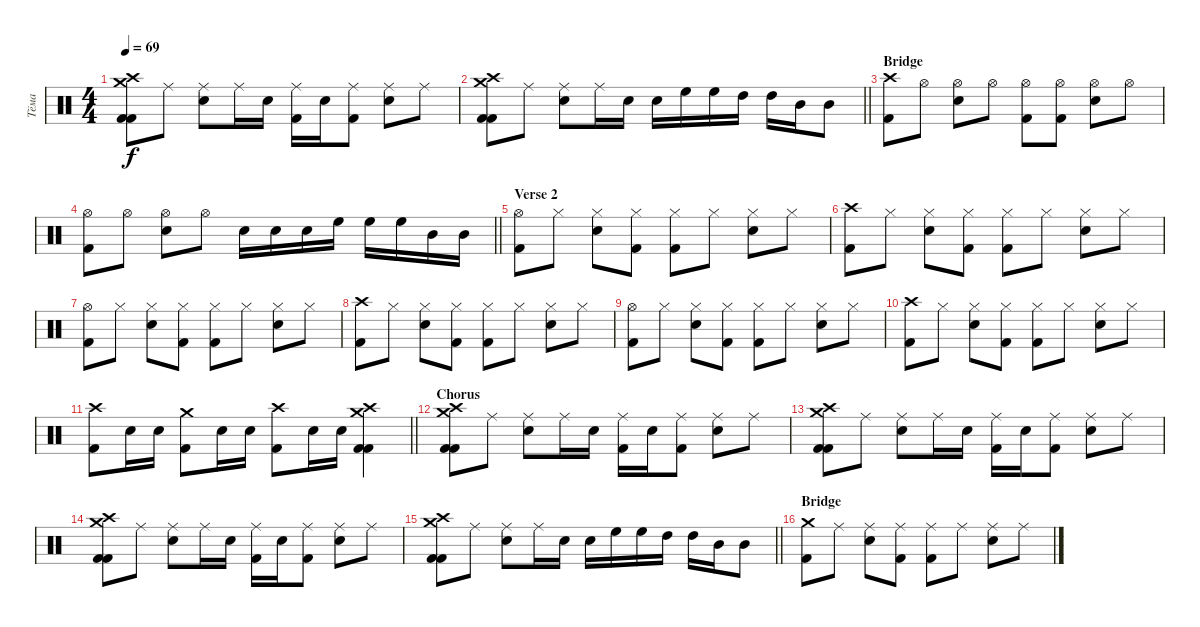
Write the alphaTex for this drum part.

\track ("Тёма" "Тёма") {instrument percussion}
\staff {score}
\articulation defaults
\ts (4 4)
\tempo 69
\clef neutral
\ks c
("Crash medium (hit)" "Crash high (hit)" "Kick (hit) 2" "Kick (hit) 2").8{dy f} "Ride (middle)".8 ("Ride (middle)" "Snare (hit) 2").8 "Ride (middle)".16 "Snare (hit) 2".16 ("Ride (middle)" "Kick (hit) 2").16 "Snare (hit) 2".16 ("Ride (middle)" "Kick (hit) 2").8 ("Ride (middle)" "Snare (hit) 2").8 "Ride (middle)".8 |
\barLineRight lightlight
("Crash medium (hit)" "Crash high (hit)" "Kick (hit) 2" "Kick (hit) 2").8 "Ride (middle)".8 ("Ride (middle)" "Snare (hit) 2").8 "Ride (middle)".16 "Snare (hit) 2".16 "Snare (hit) 2".16 "High Floor Tom (hit)".16 "High Floor Tom (hit)".16 "High Tom (hit)".16 "High Tom (hit)".16 "Mid Tom (hit)".16 "Mid Tom (hit)".8 |
\section ("" "Bridge")
("Crash high (hit)" "Kick (hit) 2").8 "Hi-Hat (open)".8 ("Hi-Hat (open)" "Snare (hit) 2").8 "Hi-Hat (open)".8 ("Hi-Hat (open)" "Kick (hit) 2").8 ("Hi-Hat (open)" "Kick (hit) 2").8 ("Hi-Hat (open)" "Snare (hit) 2").8 "Hi-Hat (open)".8 |
\barLineRight lightlight
("Hi-Hat (open)" "Kick (hit) 2").8 "Hi-Hat (open)".8 ("Hi-Hat (open)" "Snare (hit) 2").8 "Hi-Hat (open)".8 "Snare (hit) 2".16 "Snare (hit) 2".16 "Snare (hit) 2".16 "High Floor Tom (hit)".16 "High Floor Tom (hit)".16 "High Floor Tom (hit)".16 "Mid Tom (hit)".16 "Mid Tom (hit)".16 |
\section ("" "Verse 2")
("Hi-Hat (open)" "Kick (hit) 2").8 "Hi-Hat (closed)".8 ("Hi-Hat (closed)" "Snare (hit) 2").8 ("Hi-Hat (closed)" "Kick (hit) 2").8 ("Hi-Hat (closed)" "Kick (hit) 2").8 "Hi-Hat (closed)".8 ("Hi-Hat (closed)" "Snare (hit) 2").8 "Hi-Hat (closed)".8 |
("Crash high (hit)" "Kick (hit) 2").8 "Hi-Hat (closed)".8 ("Hi-Hat (closed)" "Snare (hit) 2").8 ("Hi-Hat (closed)" "Kick (hit) 2").8 ("Hi-Hat (closed)" "Kick (hit) 2").8 "Hi-Hat (closed)".8 ("Hi-Hat (closed)" "Snare (hit) 2").8 "Hi-Hat (closed)".8 |
("Hi-Hat (open)" "Kick (hit) 2").8 "Hi-Hat (closed)".8 ("Hi-Hat (closed)" "Snare (hit) 2").8 ("Hi-Hat (closed)" "Kick (hit) 2").8 ("Hi-Hat (closed)" "Kick (hit) 2").8 "Hi-Hat (closed)".8 ("Hi-Hat (closed)" "Snare (hit) 2").8 "Hi-Hat (closed)".8 |
("Crash high (hit)" "Kick (hit) 2").8 "Hi-Hat (closed)".8 ("Hi-Hat (closed)" "Snare (hit) 2").8 ("Hi-Hat (closed)" "Kick (hit) 2").8 ("Hi-Hat (closed)" "Kick (hit) 2").8 "Hi-Hat (closed)".8 ("Hi-Hat (closed)" "Snare (hit) 2").8 "Hi-Hat (closed)".8 |
("Hi-Hat (open)" "Kick (hit) 2").8 "Hi-Hat (closed)".8 ("Hi-Hat (closed)" "Snare (hit) 2").8 ("Hi-Hat (closed)" "Kick (hit) 2").8 ("Hi-Hat (closed)" "Kick (hit) 2").8 "Hi-Hat (closed)".8 ("Hi-Hat (closed)" "Snare (hit) 2").8 "Hi-Hat (closed)".8 |
("Crash high (hit)" "Kick (hit) 2").8 "Hi-Hat (closed)".8 ("Hi-Hat (closed)" "Snare (hit) 2").8 ("Hi-Hat (closed)" "Kick (hit) 2").8 ("Hi-Hat (closed)" "Kick (hit) 2").8 "Hi-Hat (closed)".8 ("Hi-Hat (closed)" "Snare (hit) 2").8 "Hi-Hat (closed)".8 |
\barLineRight lightlight
("Crash high (hit)" "Kick (hit) 2").8 "Snare (hit) 2".16 "Snare (hit) 2".16 ("Crash medium (hit)" "Kick (hit) 2").8 "Snare (hit) 2".16 "Snare (hit) 2".16 ("Crash high (hit)" "Kick (hit) 2").8 "Snare (hit) 2".16 "Snare (hit) 2".16 ("Crash medium (hit)" "Crash high (hit)" "Kick (hit) 2" "Kick (hit) 2").4 |
\section ("" "Chorus")
("Crash medium (hit)" "Crash high (hit)" "Kick (hit) 2" "Kick (hit) 2").8 "Ride (middle)".8 ("Ride (middle)" "Snare (hit) 2").8 "Ride (middle)".16 "Snare (hit) 2".16 ("Ride (middle)" "Kick (hit) 2").16 "Snare (hit) 2".16 ("Ride (middle)" "Kick (hit) 2").8 ("Ride (middle)" "Snare (hit) 2").8 "Ride (middle)".8 |
("Crash medium (hit)" "Crash high (hit)" "Kick (hit) 2" "Kick (hit) 2").8 "Ride (middle)".8 ("Ride (middle)" "Snare (hit) 2").8 "Ride (middle)".16 "Snare (hit) 2".16 ("Ride (middle)" "Kick (hit) 2").16 "Snare (hit) 2".16 ("Ride (middle)" "Kick (hit) 2").8 ("Ride (middle)" "Snare (hit) 2").8 "Ride (middle)".8 |
("Crash medium (hit)" "Crash high (hit)" "Kick (hit) 2" "Kick (hit) 2").8 "Ride (middle)".8 ("Ride (middle)" "Snare (hit) 2").8 "Ride (middle)".16 "Snare (hit) 2".16 ("Ride (middle)" "Kick (hit) 2").16 "Snare (hit) 2".16 ("Ride (middle)" "Kick (hit) 2").8 ("Ride (middle)" "Snare (hit) 2").8 "Ride (middle)".8 |
\barLineRight lightlight
("Crash medium (hit)" "Crash high (hit)" "Kick (hit) 2" "Kick (hit) 2").8 "Ride (middle)".8 ("Ride (middle)" "Snare (hit) 2").8 "Ride (middle)".16 "Snare (hit) 2".16 "Snare (hit) 2".16 "High Floor Tom (hit)".16 "High Floor Tom (hit)".16 "High Tom (hit)".16 "High Tom (hit)".16 "Mid Tom (hit)".16 "Mid Tom (hit)".8 |
\section ("" "Bridge")
("Crash medium (hit)" "Kick (hit) 2").8 "Ride (middle)".8 ("Ride (middle)" "Snare (hit) 2").8 ("Ride (middle)" "Kick (hit) 2").8 ("Ride (middle)" "Kick (hit) 2").8 "Ride (middle)".8 ("Ride (middle)" "Snare (hit) 2").8 "Ride (middle)".8
